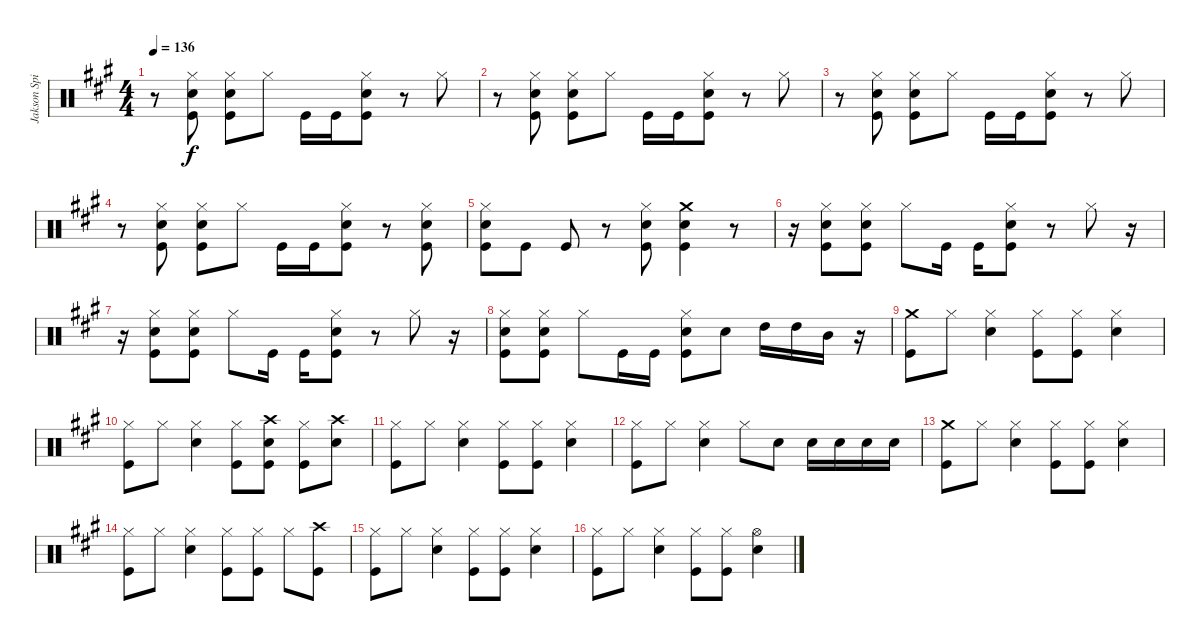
\track ("Jakson Spires Drums" "Jakson Spi") {instrument percussion}
\staff {score}
\articulation defaults
\ts (4 4)
\tempo 136
\clef neutral
\ks a
r.8{dy f} ("Hi-Hat (closed)" "Snare (hit) 2" "Kick (hit)").8 ("Hi-Hat (closed)" "Snare (hit) 2" "Kick (hit)").8 "Hi-Hat (closed)".8 "Kick (hit)".16 "Kick (hit)".16 ("Hi-Hat (closed)" "Snare (hit) 2" "Kick (hit)").8 r.8 "Hi-Hat (closed)".8 |
r.8 ("Hi-Hat (closed)" "Snare (hit) 2" "Kick (hit)").8 ("Hi-Hat (closed)" "Snare (hit) 2" "Kick (hit)").8 "Hi-Hat (closed)".8 "Kick (hit)".16 "Kick (hit)".16 ("Hi-Hat (closed)" "Snare (hit) 2" "Kick (hit)").8 r.8 "Hi-Hat (closed)".8 |
r.8 ("Hi-Hat (closed)" "Snare (hit) 2" "Kick (hit)").8 ("Hi-Hat (closed)" "Snare (hit) 2" "Kick (hit)").8 "Hi-Hat (closed)".8 "Kick (hit)".16 "Kick (hit)".16 ("Hi-Hat (closed)" "Snare (hit) 2" "Kick (hit)").8 r.8 "Hi-Hat (closed)".8 |
r.8 ("Hi-Hat (closed)" "Snare (hit) 2" "Kick (hit)").8 ("Hi-Hat (closed)" "Snare (hit) 2" "Kick (hit)").8 "Hi-Hat (closed)".8 "Kick (hit)".16 "Kick (hit)".16 ("Hi-Hat (closed)" "Snare (hit) 2" "Kick (hit)").8 r.8 ("Hi-Hat (closed)" "Snare (hit) 2" "Kick (hit)").8 |
("Hi-Hat (closed)" "Snare (hit) 2" "Kick (hit)").8 "Kick (hit)".8 "Kick (hit)".8 r.8 ("Hi-Hat (closed)" "Snare (hit) 2" "Kick (hit)").8 ("Crash medium (hit)" "Snare (hit) 2" "Kick (hit)").4 r.8 |
r.16 ("Hi-Hat (closed)" "Snare (hit) 2" "Kick (hit)").8 ("Hi-Hat (closed)" "Snare (hit) 2" "Kick (hit)").8 "Hi-Hat (closed)".8 "Kick (hit)".16 "Kick (hit)".16 ("Hi-Hat (closed)" "Snare (hit) 2" "Kick (hit)").8 r.8 "Hi-Hat (closed)".8 r.16 |
r.16 ("Hi-Hat (closed)" "Snare (hit) 2" "Kick (hit)").8 ("Hi-Hat (closed)" "Snare (hit) 2" "Kick (hit)").8 "Hi-Hat (closed)".8 "Kick (hit)".16 "Kick (hit)".16 ("Hi-Hat (closed)" "Snare (hit) 2" "Kick (hit)").8 r.8 "Hi-Hat (closed)".8 r.16 |
("Hi-Hat (closed)" "Snare (hit) 2" "Kick (hit)").8 ("Hi-Hat (closed)" "Snare (hit) 2" "Kick (hit)").8 "Hi-Hat (closed)".8 "Kick (hit)".16 "Kick (hit)".16 ("Hi-Hat (closed)" "Snare (hit) 2" "Kick (hit)").8 "Snare (hit) 2".8 "High Tom (hit)".16 "High Tom (hit)".16 "Mid Tom (hit)".16 r.16 |
("Crash medium (hit)" "Kick (hit)").8 "Hi-Hat (closed)".8 ("Hi-Hat (closed)" "Snare (hit) 2").4 ("Hi-Hat (closed)" "Kick (hit)").8 ("Hi-Hat (closed)" "Kick (hit)").8 ("Hi-Hat (closed)" "Snare (hit) 2").4 |
("Hi-Hat (closed)" "Kick (hit)").8 "Hi-Hat (closed)".8 ("Hi-Hat (closed)" "Snare (hit) 2").4 ("Hi-Hat (closed)" "Kick (hit)").8 ("Crash high (hit)" "Snare (hit) 2" "Kick (hit)").8 ("Hi-Hat (closed)" "Kick (hit)").8 ("Crash high (hit)" "Snare (hit) 2").8 |
("Hi-Hat (closed)" "Kick (hit)").8 "Hi-Hat (closed)".8 ("Hi-Hat (closed)" "Snare (hit) 2").4 ("Hi-Hat (closed)" "Kick (hit)").8 ("Hi-Hat (closed)" "Kick (hit)").8 ("Hi-Hat (closed)" "Snare (hit) 2").4 |
("Hi-Hat (closed)" "Kick (hit)").8 "Hi-Hat (closed)".8 ("Hi-Hat (closed)" "Snare (hit) 2").4 "Hi-Hat (closed)".8 "Snare (hit) 2".8 "Snare (hit) 2".16 "Snare (hit) 2".16 "Snare (hit) 2".16 "Snare (hit) 2".16 |
("Crash medium (hit)" "Kick (hit)").8 "Hi-Hat (closed)".8 ("Hi-Hat (closed)" "Snare (hit) 2").4 ("Hi-Hat (closed)" "Kick (hit)").8 ("Hi-Hat (closed)" "Kick (hit)").8 ("Hi-Hat (closed)" "Snare (hit) 2").4 |
("Hi-Hat (closed)" "Kick (hit)").8 "Hi-Hat (closed)".8 ("Hi-Hat (closed)" "Snare (hit) 2").4 ("Hi-Hat (closed)" "Kick (hit)").8 ("Hi-Hat (closed)" "Kick (hit)").8 "Hi-Hat (closed)".8 ("Crash high (hit)" "Kick (hit)").8 |
("Hi-Hat (closed)" "Kick (hit)").8 "Hi-Hat (closed)".8 ("Hi-Hat (closed)" "Snare (hit) 2").4 ("Hi-Hat (closed)" "Kick (hit)").8 ("Hi-Hat (closed)" "Kick (hit)").8 ("Hi-Hat (closed)" "Snare (hit) 2").4 |
("Hi-Hat (closed)" "Kick (hit)").8 "Hi-Hat (closed)".8 ("Hi-Hat (closed)" "Snare (hit) 2").4 ("Hi-Hat (closed)" "Kick (hit)").8 ("Hi-Hat (closed)" "Kick (hit)").8 ("Hi-Hat (open)" "Snare (hit) 2").4
